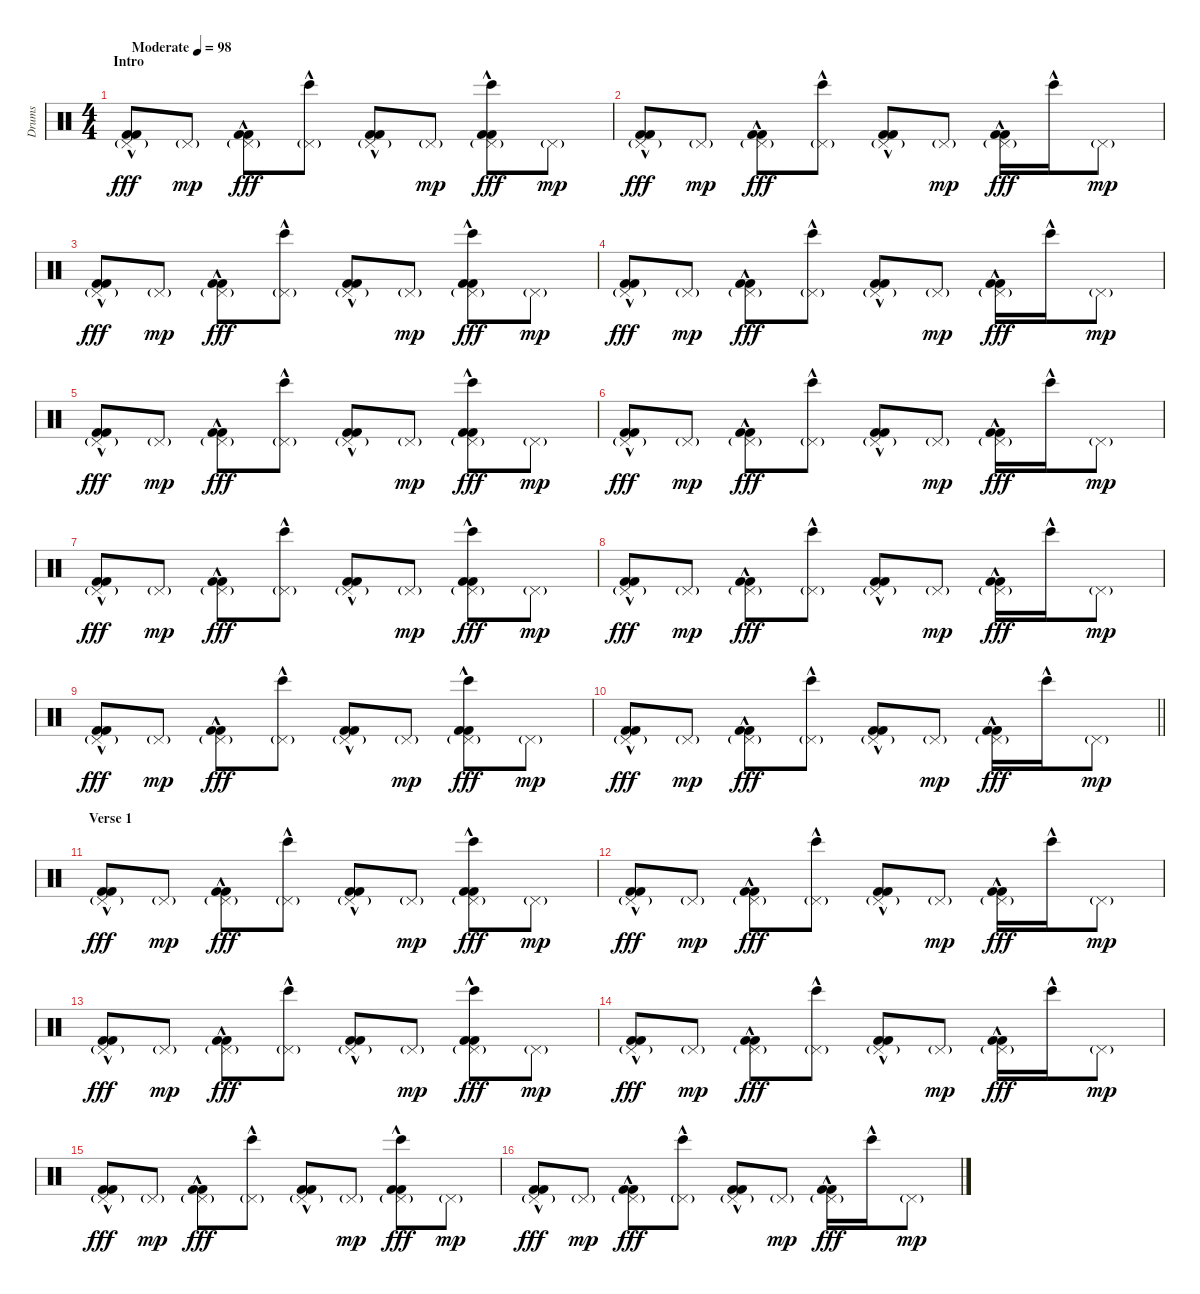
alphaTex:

\track ("Drums" "Drums") {instrument percussion}
\staff {score}
\articulation defaults
\ts (4 4)
\section ("" "Intro")
\tempo (98 "Moderate")
\clef neutral
\ks c
("Kick (hit) 2"{hac} "Pedal Hi-Hat (hit)"{g} "Kick (hit) 2"{hac}).8{dy fff} "Pedal Hi-Hat (hit)"{g}.8{dy mp} ("Kick (hit) 2"{hac} "Pedal Hi-Hat (hit)"{g} "Kick (hit) 2"{hac}).8{dy fff} ("Pedal Hi-Hat (hit)"{g} "Bongo High (hit)"{hac}).8 ("Kick (hit) 2"{hac} "Pedal Hi-Hat (hit)"{g} "Kick (hit) 2"{hac}).8 "Pedal Hi-Hat (hit)"{g}.8{dy mp} ("Kick (hit) 2"{hac} "Pedal Hi-Hat (hit)"{g} "Bongo High (hit)"{hac} "Kick (hit) 2"{hac}).8{dy fff} "Pedal Hi-Hat (hit)"{g}.8{dy mp} |
("Kick (hit) 2"{hac} "Pedal Hi-Hat (hit)"{g} "Kick (hit) 2"{hac}).8{dy fff} "Pedal Hi-Hat (hit)"{g}.8{dy mp} ("Kick (hit) 2"{hac} "Pedal Hi-Hat (hit)"{g} "Kick (hit) 2"{hac}).8{dy fff} ("Pedal Hi-Hat (hit)"{g} "Bongo High (hit)"{hac}).8 ("Kick (hit) 2"{hac} "Pedal Hi-Hat (hit)"{g} "Kick (hit) 2"{hac}).8 "Pedal Hi-Hat (hit)"{g}.8{dy mp} ("Kick (hit) 2"{hac} "Pedal Hi-Hat (hit)"{g} "Kick (hit) 2"{hac}).16{dy fff} "Bongo High (hit)"{hac}.16 "Pedal Hi-Hat (hit)"{g}.8{dy mp} |
("Kick (hit) 2"{hac} "Pedal Hi-Hat (hit)"{g} "Kick (hit) 2"{hac}).8{dy fff} "Pedal Hi-Hat (hit)"{g}.8{dy mp} ("Kick (hit) 2"{hac} "Pedal Hi-Hat (hit)"{g} "Kick (hit) 2"{hac}).8{dy fff} ("Pedal Hi-Hat (hit)"{g} "Bongo High (hit)"{hac}).8 ("Kick (hit) 2"{hac} "Pedal Hi-Hat (hit)"{g} "Kick (hit) 2"{hac}).8 "Pedal Hi-Hat (hit)"{g}.8{dy mp} ("Kick (hit) 2"{hac} "Pedal Hi-Hat (hit)"{g} "Bongo High (hit)"{hac} "Kick (hit) 2"{hac}).8{dy fff} "Pedal Hi-Hat (hit)"{g}.8{dy mp} |
("Kick (hit) 2"{hac} "Pedal Hi-Hat (hit)"{g} "Kick (hit) 2"{hac}).8{dy fff} "Pedal Hi-Hat (hit)"{g}.8{dy mp} ("Kick (hit) 2"{hac} "Pedal Hi-Hat (hit)"{g} "Kick (hit) 2"{hac}).8{dy fff} ("Pedal Hi-Hat (hit)"{g} "Bongo High (hit)"{hac}).8 ("Kick (hit) 2"{hac} "Pedal Hi-Hat (hit)"{g} "Kick (hit) 2"{hac}).8 "Pedal Hi-Hat (hit)"{g}.8{dy mp} ("Kick (hit) 2"{hac} "Pedal Hi-Hat (hit)"{g} "Kick (hit) 2"{hac}).16{dy fff} "Bongo High (hit)"{hac}.16 "Pedal Hi-Hat (hit)"{g}.8{dy mp} |
("Kick (hit) 2"{hac} "Pedal Hi-Hat (hit)"{g} "Kick (hit) 2"{hac}).8{dy fff} "Pedal Hi-Hat (hit)"{g}.8{dy mp} ("Kick (hit) 2"{hac} "Pedal Hi-Hat (hit)"{g} "Kick (hit) 2"{hac}).8{dy fff} ("Pedal Hi-Hat (hit)"{g} "Bongo High (hit)"{hac}).8 ("Kick (hit) 2"{hac} "Pedal Hi-Hat (hit)"{g} "Kick (hit) 2"{hac}).8 "Pedal Hi-Hat (hit)"{g}.8{dy mp} ("Kick (hit) 2"{hac} "Pedal Hi-Hat (hit)"{g} "Bongo High (hit)"{hac} "Kick (hit) 2"{hac}).8{dy fff} "Pedal Hi-Hat (hit)"{g}.8{dy mp} |
("Kick (hit) 2"{hac} "Pedal Hi-Hat (hit)"{g} "Kick (hit) 2"{hac}).8{dy fff} "Pedal Hi-Hat (hit)"{g}.8{dy mp} ("Kick (hit) 2"{hac} "Pedal Hi-Hat (hit)"{g} "Kick (hit) 2"{hac}).8{dy fff} ("Pedal Hi-Hat (hit)"{g} "Bongo High (hit)"{hac}).8 ("Kick (hit) 2"{hac} "Pedal Hi-Hat (hit)"{g} "Kick (hit) 2"{hac}).8 "Pedal Hi-Hat (hit)"{g}.8{dy mp} ("Kick (hit) 2"{hac} "Pedal Hi-Hat (hit)"{g} "Kick (hit) 2"{hac}).16{dy fff} "Bongo High (hit)"{hac}.16 "Pedal Hi-Hat (hit)"{g}.8{dy mp} |
("Kick (hit) 2"{hac} "Pedal Hi-Hat (hit)"{g} "Kick (hit) 2"{hac}).8{dy fff} "Pedal Hi-Hat (hit)"{g}.8{dy mp} ("Kick (hit) 2"{hac} "Pedal Hi-Hat (hit)"{g} "Kick (hit) 2"{hac}).8{dy fff} ("Pedal Hi-Hat (hit)"{g} "Bongo High (hit)"{hac}).8 ("Kick (hit) 2"{hac} "Pedal Hi-Hat (hit)"{g} "Kick (hit) 2"{hac}).8 "Pedal Hi-Hat (hit)"{g}.8{dy mp} ("Kick (hit) 2"{hac} "Pedal Hi-Hat (hit)"{g} "Bongo High (hit)"{hac} "Kick (hit) 2"{hac}).8{dy fff} "Pedal Hi-Hat (hit)"{g}.8{dy mp} |
("Kick (hit) 2"{hac} "Pedal Hi-Hat (hit)"{g} "Kick (hit) 2"{hac}).8{dy fff} "Pedal Hi-Hat (hit)"{g}.8{dy mp} ("Kick (hit) 2"{hac} "Pedal Hi-Hat (hit)"{g} "Kick (hit) 2"{hac}).8{dy fff} ("Pedal Hi-Hat (hit)"{g} "Bongo High (hit)"{hac}).8 ("Kick (hit) 2"{hac} "Pedal Hi-Hat (hit)"{g} "Kick (hit) 2"{hac}).8 "Pedal Hi-Hat (hit)"{g}.8{dy mp} ("Kick (hit) 2"{hac} "Pedal Hi-Hat (hit)"{g} "Kick (hit) 2"{hac}).16{dy fff} "Bongo High (hit)"{hac}.16 "Pedal Hi-Hat (hit)"{g}.8{dy mp} |
("Kick (hit) 2"{hac} "Pedal Hi-Hat (hit)"{g} "Kick (hit) 2"{hac}).8{dy fff} "Pedal Hi-Hat (hit)"{g}.8{dy mp} ("Kick (hit) 2"{hac} "Pedal Hi-Hat (hit)"{g} "Kick (hit) 2"{hac}).8{dy fff} ("Pedal Hi-Hat (hit)"{g} "Bongo High (hit)"{hac}).8 ("Kick (hit) 2"{hac} "Pedal Hi-Hat (hit)"{g} "Kick (hit) 2"{hac}).8 "Pedal Hi-Hat (hit)"{g}.8{dy mp} ("Kick (hit) 2"{hac} "Pedal Hi-Hat (hit)"{g} "Bongo High (hit)"{hac} "Kick (hit) 2"{hac}).8{dy fff} "Pedal Hi-Hat (hit)"{g}.8{dy mp} |
\barLineRight lightlight
("Kick (hit) 2"{hac} "Pedal Hi-Hat (hit)"{g} "Kick (hit) 2"{hac}).8{dy fff} "Pedal Hi-Hat (hit)"{g}.8{dy mp} ("Kick (hit) 2"{hac} "Pedal Hi-Hat (hit)"{g} "Kick (hit) 2"{hac}).8{dy fff} ("Pedal Hi-Hat (hit)"{g} "Bongo High (hit)"{hac}).8 ("Kick (hit) 2"{hac} "Pedal Hi-Hat (hit)"{g} "Kick (hit) 2"{hac}).8 "Pedal Hi-Hat (hit)"{g}.8{dy mp} ("Kick (hit) 2"{hac} "Pedal Hi-Hat (hit)"{g} "Kick (hit) 2"{hac}).16{dy fff} "Bongo High (hit)"{hac}.16 "Pedal Hi-Hat (hit)"{g}.8{dy mp} |
\section ("" "Verse 1")
("Kick (hit) 2"{hac} "Pedal Hi-Hat (hit)"{g} "Kick (hit) 2"{hac}).8{dy fff volume 4} "Pedal Hi-Hat (hit)"{g}.8{dy mp} ("Kick (hit) 2"{hac} "Pedal Hi-Hat (hit)"{g} "Kick (hit) 2"{hac}).8{dy fff} ("Pedal Hi-Hat (hit)"{g} "Bongo High (hit)"{hac}).8 ("Kick (hit) 2"{hac} "Pedal Hi-Hat (hit)"{g} "Kick (hit) 2"{hac}).8 "Pedal Hi-Hat (hit)"{g}.8{dy mp} ("Kick (hit) 2"{hac} "Pedal Hi-Hat (hit)"{g} "Bongo High (hit)"{hac} "Kick (hit) 2"{hac}).8{dy fff} "Pedal Hi-Hat (hit)"{g}.8{dy mp} |
("Kick (hit) 2"{hac} "Pedal Hi-Hat (hit)"{g} "Kick (hit) 2"{hac}).8{dy fff} "Pedal Hi-Hat (hit)"{g}.8{dy mp} ("Kick (hit) 2"{hac} "Pedal Hi-Hat (hit)"{g} "Kick (hit) 2"{hac}).8{dy fff} ("Pedal Hi-Hat (hit)"{g} "Bongo High (hit)"{hac}).8 ("Kick (hit) 2"{hac} "Pedal Hi-Hat (hit)"{g} "Kick (hit) 2"{hac}).8 "Pedal Hi-Hat (hit)"{g}.8{dy mp} ("Kick (hit) 2"{hac} "Pedal Hi-Hat (hit)"{g} "Kick (hit) 2"{hac}).16{dy fff} "Bongo High (hit)"{hac}.16 "Pedal Hi-Hat (hit)"{g}.8{dy mp} |
("Kick (hit) 2"{hac} "Pedal Hi-Hat (hit)"{g} "Kick (hit) 2"{hac}).8{dy fff} "Pedal Hi-Hat (hit)"{g}.8{dy mp} ("Kick (hit) 2"{hac} "Pedal Hi-Hat (hit)"{g} "Kick (hit) 2"{hac}).8{dy fff} ("Pedal Hi-Hat (hit)"{g} "Bongo High (hit)"{hac}).8 ("Kick (hit) 2"{hac} "Pedal Hi-Hat (hit)"{g} "Kick (hit) 2"{hac}).8 "Pedal Hi-Hat (hit)"{g}.8{dy mp} ("Kick (hit) 2"{hac} "Pedal Hi-Hat (hit)"{g} "Bongo High (hit)"{hac} "Kick (hit) 2"{hac}).8{dy fff} "Pedal Hi-Hat (hit)"{g}.8{dy mp} |
("Kick (hit) 2"{hac} "Pedal Hi-Hat (hit)"{g} "Kick (hit) 2"{hac}).8{dy fff} "Pedal Hi-Hat (hit)"{g}.8{dy mp} ("Kick (hit) 2"{hac} "Pedal Hi-Hat (hit)"{g} "Kick (hit) 2"{hac}).8{dy fff} ("Pedal Hi-Hat (hit)"{g} "Bongo High (hit)"{hac}).8 ("Kick (hit) 2"{hac} "Pedal Hi-Hat (hit)"{g} "Kick (hit) 2"{hac}).8 "Pedal Hi-Hat (hit)"{g}.8{dy mp} ("Kick (hit) 2"{hac} "Pedal Hi-Hat (hit)"{g} "Kick (hit) 2"{hac}).16{dy fff} "Bongo High (hit)"{hac}.16 "Pedal Hi-Hat (hit)"{g}.8{dy mp} |
("Kick (hit) 2"{hac} "Pedal Hi-Hat (hit)"{g} "Kick (hit) 2"{hac}).8{dy fff} "Pedal Hi-Hat (hit)"{g}.8{dy mp} ("Kick (hit) 2"{hac} "Pedal Hi-Hat (hit)"{g} "Kick (hit) 2"{hac}).8{dy fff} ("Pedal Hi-Hat (hit)"{g} "Bongo High (hit)"{hac}).8 ("Kick (hit) 2"{hac} "Pedal Hi-Hat (hit)"{g} "Kick (hit) 2"{hac}).8 "Pedal Hi-Hat (hit)"{g}.8{dy mp} ("Kick (hit) 2"{hac} "Pedal Hi-Hat (hit)"{g} "Bongo High (hit)"{hac} "Kick (hit) 2"{hac}).8{dy fff} "Pedal Hi-Hat (hit)"{g}.8{dy mp} |
("Kick (hit) 2"{hac} "Pedal Hi-Hat (hit)"{g} "Kick (hit) 2"{hac}).8{dy fff} "Pedal Hi-Hat (hit)"{g}.8{dy mp} ("Kick (hit) 2"{hac} "Pedal Hi-Hat (hit)"{g} "Kick (hit) 2"{hac}).8{dy fff} ("Pedal Hi-Hat (hit)"{g} "Bongo High (hit)"{hac}).8 ("Kick (hit) 2"{hac} "Pedal Hi-Hat (hit)"{g} "Kick (hit) 2"{hac}).8 "Pedal Hi-Hat (hit)"{g}.8{dy mp} ("Kick (hit) 2"{hac} "Pedal Hi-Hat (hit)"{g} "Kick (hit) 2"{hac}).16{dy fff} "Bongo High (hit)"{hac}.16 "Pedal Hi-Hat (hit)"{g}.8{dy mp}
